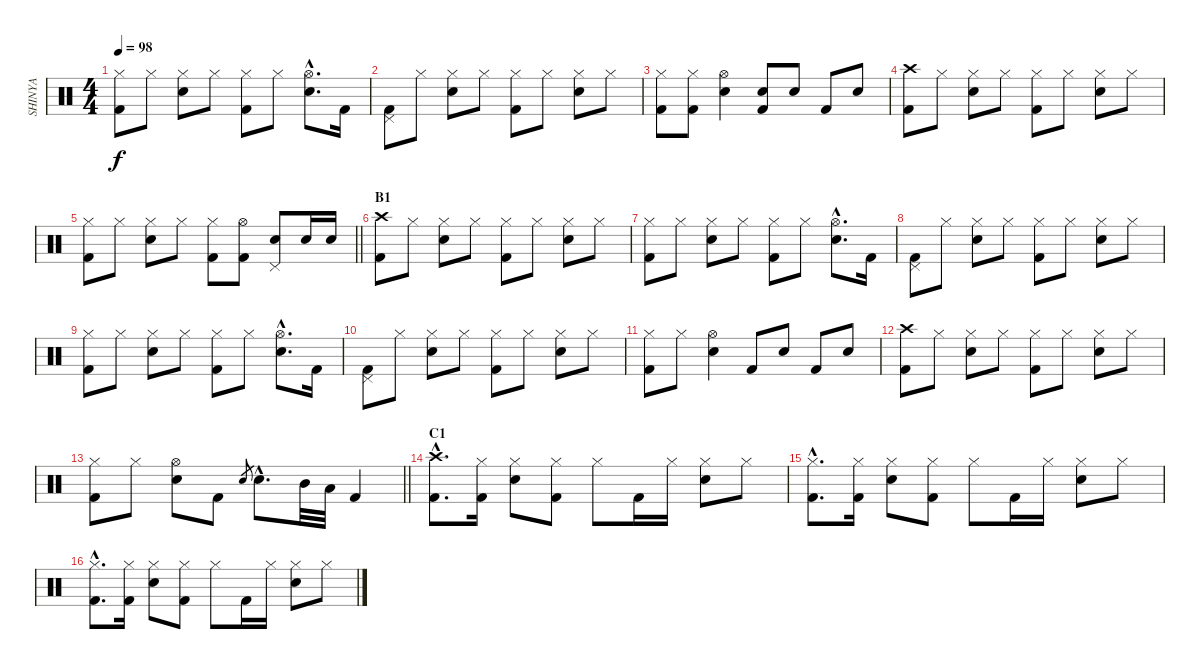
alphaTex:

\track ("SHINYA" "SHINYA") {instrument percussion}
\staff {score}
\articulation defaults
\ts (4 4)
\tempo 98
\clef neutral
\ks c
("Hi-Hat (closed)" "Kick (hit) 2").8{dy f} "Hi-Hat (closed)".8 ("Hi-Hat (closed)" "Snare (hit) 2").8 "Hi-Hat (closed)".8 ("Hi-Hat (closed)" "Kick (hit) 2").8 "Hi-Hat (closed)".8 ("Hi-Hat (open)"{hac} "Snare (hit) 2"{hac}).8{d} "Kick (hit) 2".16 |
("Pedal Hi-Hat (hit)" "Kick (hit) 2").8 "Hi-Hat (closed)".8 ("Hi-Hat (closed)" "Snare (hit) 2").8 "Hi-Hat (closed)".8 ("Hi-Hat (closed)" "Kick (hit) 2").8 "Hi-Hat (closed)".8 ("Hi-Hat (closed)" "Snare (hit) 2").8 "Hi-Hat (closed)".8 |
("Hi-Hat (closed)" "Kick (hit) 2").8 ("Hi-Hat (closed)" "Kick (hit) 2").8 ("Hi-Hat (open)" "Snare (hit) 2").4 ("Snare (hit) 2" "Kick (hit) 2").8 "Snare (hit) 2".8 "Kick (hit) 2".8 "Snare (hit) 2".8 |
("Crash high (hit)" "Kick (hit) 2").8 "Hi-Hat (closed)".8 ("Hi-Hat (closed)" "Snare (hit) 2").8 "Hi-Hat (closed)".8 ("Hi-Hat (closed)" "Kick (hit) 2").8 "Hi-Hat (closed)".8 ("Hi-Hat (closed)" "Snare (hit) 2").8 "Hi-Hat (closed)".8 |
\barLineRight lightlight
("Hi-Hat (closed)" "Kick (hit) 2").8 "Hi-Hat (closed)".8 ("Hi-Hat (closed)" "Snare (hit) 2").8 "Hi-Hat (closed)".8 ("Hi-Hat (closed)" "Kick (hit) 2").8 ("Hi-Hat (open)" "Kick (hit) 2").8 ("Pedal Hi-Hat (hit)" "Snare (hit) 2").8 "Snare (hit) 2".16 "Snare (hit) 2".16 |
\section ("" "B1")
("Crash high (hit)" "Kick (hit) 2").8 "Hi-Hat (closed)".8 ("Hi-Hat (closed)" "Snare (hit) 2").8 "Hi-Hat (closed)".8 ("Hi-Hat (closed)" "Kick (hit) 2").8 "Hi-Hat (closed)".8 ("Hi-Hat (closed)" "Snare (hit) 2").8 "Hi-Hat (closed)".8 |
("Hi-Hat (closed)" "Kick (hit) 2").8 "Hi-Hat (closed)".8 ("Hi-Hat (closed)" "Snare (hit) 2").8 "Hi-Hat (closed)".8 ("Hi-Hat (closed)" "Kick (hit) 2").8 "Hi-Hat (closed)".8 ("Hi-Hat (open)"{hac} "Snare (hit) 2"{hac}).8{d} "Kick (hit) 2".16 |
("Pedal Hi-Hat (hit)" "Kick (hit) 2").8 "Hi-Hat (closed)".8 ("Hi-Hat (closed)" "Snare (hit) 2").8 "Hi-Hat (closed)".8 ("Hi-Hat (closed)" "Kick (hit) 2").8 "Hi-Hat (closed)".8 ("Hi-Hat (closed)" "Snare (hit) 2").8 "Hi-Hat (closed)".8 |
("Hi-Hat (closed)" "Kick (hit) 2").8 "Hi-Hat (closed)".8 ("Hi-Hat (closed)" "Snare (hit) 2").8 "Hi-Hat (closed)".8 ("Hi-Hat (closed)" "Kick (hit) 2").8 "Hi-Hat (closed)".8 ("Hi-Hat (open)"{hac} "Snare (hit) 2"{hac}).8{d} "Kick (hit) 2".16 |
("Pedal Hi-Hat (hit)" "Kick (hit) 2").8 "Hi-Hat (closed)".8 ("Hi-Hat (closed)" "Snare (hit) 2").8 "Hi-Hat (closed)".8 ("Hi-Hat (closed)" "Kick (hit) 2").8 "Hi-Hat (closed)".8 ("Hi-Hat (closed)" "Snare (hit) 2").8 "Hi-Hat (closed)".8 |
("Hi-Hat (closed)" "Kick (hit) 2").8 "Hi-Hat (closed)".8 ("Hi-Hat (open)" "Snare (hit) 2").4 "Kick (hit) 2".8 "Snare (hit) 2".8 "Kick (hit) 2".8 "Snare (hit) 2".8 |
("Crash high (hit)" "Kick (hit) 2").8 "Hi-Hat (closed)".8 ("Hi-Hat (closed)" "Snare (hit) 2").8 "Hi-Hat (closed)".8 ("Hi-Hat (closed)" "Kick (hit) 2").8 "Hi-Hat (closed)".8 ("Hi-Hat (closed)" "Snare (hit) 2").8 "Hi-Hat (closed)".8 |
\barLineRight lightlight
("Hi-Hat (closed)" "Kick (hit) 2").8 "Hi-Hat (closed)".8 ("Hi-Hat (open)" "Snare (hit) 2").8 "Kick (hit) 2".8 "Snare (hit) 2".8{gr} "Snare (hit) 2"{hac}.8{d} "Mid Tom (hit)".32 "Low Tom (hit)".32 "Kick (hit) 2".4 |
\section ("" "C1")
("Crash high (hit)"{hac} "Kick (hit) 2"{hac}).8{d} ("Hi-Hat (closed)" "Kick (hit) 2").16 ("Hi-Hat (closed)" "Snare (hit) 2").8 ("Hi-Hat (closed)" "Kick (hit) 2").8 "Hi-Hat (closed)".8 "Kick (hit) 2".16 "Hi-Hat (closed)".16 ("Hi-Hat (closed)" "Snare (hit) 2").8 "Hi-Hat (closed)".8 |
("Hi-Hat (closed)"{hac} "Kick (hit) 2"{hac}).8{d} ("Hi-Hat (closed)" "Kick (hit) 2").16 ("Hi-Hat (closed)" "Snare (hit) 2").8 ("Hi-Hat (closed)" "Kick (hit) 2").8 "Hi-Hat (closed)".8 "Kick (hit) 2".16 "Hi-Hat (closed)".16 ("Hi-Hat (closed)" "Snare (hit) 2").8 "Hi-Hat (closed)".8 |
("Hi-Hat (closed)"{hac} "Kick (hit) 2"{hac}).8{d} ("Hi-Hat (closed)" "Kick (hit) 2").16 ("Hi-Hat (closed)" "Snare (hit) 2").8 ("Hi-Hat (closed)" "Kick (hit) 2").8 "Hi-Hat (closed)".8 "Kick (hit) 2".16 "Hi-Hat (closed)".16 ("Hi-Hat (closed)" "Snare (hit) 2").8 "Hi-Hat (closed)".8
